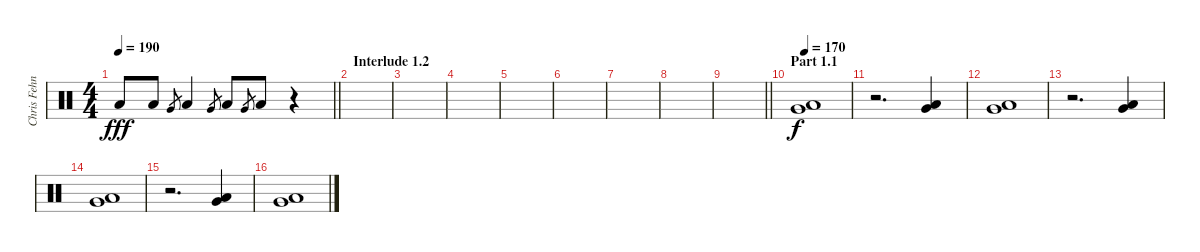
\track ("Chris Fehn" "Chris Fehn") {instrument percussion}
\staff {score}
\articulation defaults
\ts (4 4)
\tempo 190
\clef neutral
\barLineRight lightlight
\ks c "Low Floor Tom (hit)".8{dy fff} "Low Floor Tom (hit)".8 "Very Low Tom (hit)".8{gr} "Low Floor Tom (hit)".4 "Very Low Tom (hit)".8{gr} "Low Floor Tom (hit)".8 "Very Low Tom (hit)".8{gr} "Low Floor Tom (hit)".8
r.4 |
\section ("" "Interlude 1.2")
|
|
|
|
|
|
|
\barLineRight lightlight
|
\section ("" "Part 1.1")
\tempo 170
("Very Low Tom (hit)" "Low Floor Tom (hit)").1{dy f} |
r.2{d} ("Very Low Tom (hit)" "Low Floor Tom (hit)").4 |
("Very Low Tom (hit)" "Low Floor Tom (hit)").1 |
r.2{d} ("Very Low Tom (hit)" "Low Floor Tom (hit)").4 |
("Very Low Tom (hit)" "Low Floor Tom (hit)").1 |
r.2{d} ("Very Low Tom (hit)" "Low Floor Tom (hit)").4 |
("Very Low Tom (hit)" "Low Floor Tom (hit)").1
